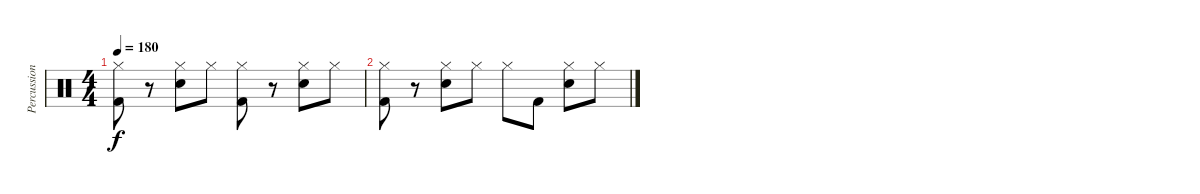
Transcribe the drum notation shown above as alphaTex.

\track ("Percussion" "Percussion") {instrument percussion}
\staff {score}
\articulation defaults
\ts (4 4)
\tempo 180
\clef neutral
\ks c
("Hi-Hat (closed)" "Kick (hit) 2").8{dy f} r.8 ("Hi-Hat (closed)" "Electric Snare (hit)").8 "Hi-Hat (closed)".8 ("Hi-Hat (closed)" "Kick (hit) 2").8 r.8 ("Hi-Hat (closed)" "Electric Snare (hit)").8 "Hi-Hat (closed)".8 |
("Hi-Hat (closed)" "Kick (hit) 2").8 r.8 ("Hi-Hat (closed)" "Electric Snare (hit)").8 "Hi-Hat (closed)".8 "Hi-Hat (closed)".8 "Kick (hit) 2".8 ("Hi-Hat (closed)" "Electric Snare (hit)").8 "Hi-Hat (closed)".8
